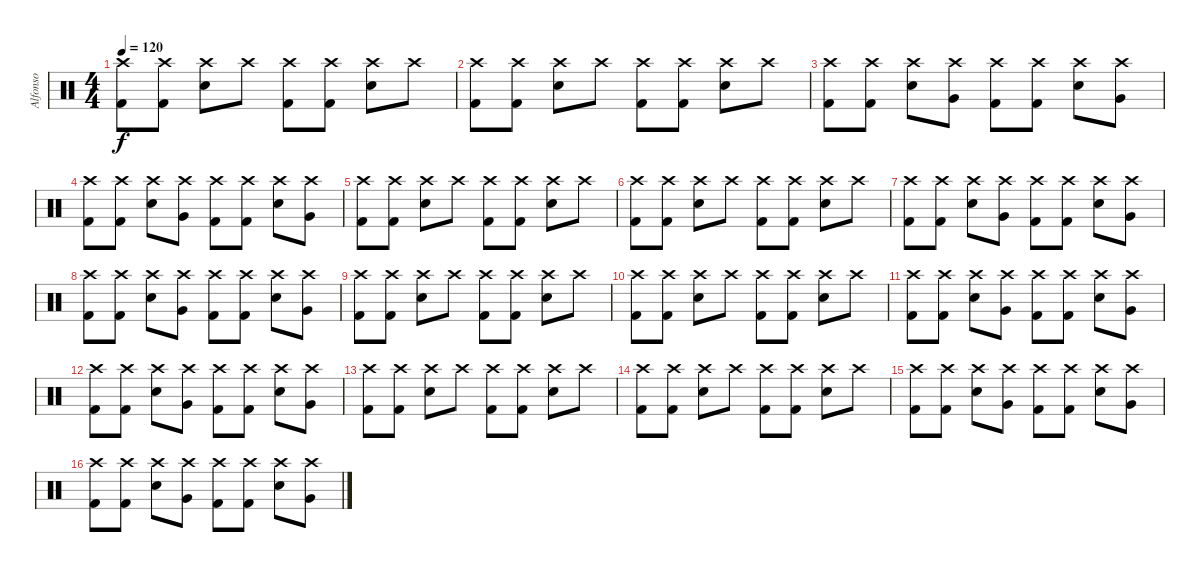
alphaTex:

\track ("Alfonso" "Alfonso") {instrument percussion}
\staff {score}
\articulation defaults
\ts (4 4)
\tempo 120
\clef neutral
\ks c
("Crash high (hit)" "Kick (hit) 2").8{dy f} ("Crash high (hit)" "Kick (hit) 2").8 ("Crash high (hit)" "Electric Snare (hit)").8 "Crash high (hit)".8 ("Crash high (hit)" "Kick (hit) 2").8 ("Crash high (hit)" "Kick (hit) 2").8 ("Crash high (hit)" "Electric Snare (hit)").8 "Crash high (hit)".8 |
("Crash high (hit)" "Kick (hit) 2").8 ("Crash high (hit)" "Kick (hit) 2").8 ("Crash high (hit)" "Electric Snare (hit)").8 "Crash high (hit)".8 ("Crash high (hit)" "Kick (hit) 2").8 ("Crash high (hit)" "Kick (hit) 2").8 ("Crash high (hit)" "Electric Snare (hit)").8 "Crash high (hit)".8 |
("Crash high (hit)" "Kick (hit) 2").8 ("Crash high (hit)" "Kick (hit) 2").8 ("Crash high (hit)" "Electric Snare (hit)").8 ("Crash high (hit)" "Very Low Tom (hit)").8 ("Crash high (hit)" "Kick (hit) 2").8 ("Crash high (hit)" "Kick (hit) 2").8 ("Crash high (hit)" "Electric Snare (hit)").8 ("Crash high (hit)" "Very Low Tom (hit)").8 |
("Crash high (hit)" "Kick (hit) 2").8 ("Crash high (hit)" "Kick (hit) 2").8 ("Crash high (hit)" "Electric Snare (hit)").8 ("Crash high (hit)" "Very Low Tom (hit)").8 ("Crash high (hit)" "Kick (hit) 2").8 ("Crash high (hit)" "Kick (hit) 2").8 ("Crash high (hit)" "Electric Snare (hit)").8 ("Crash high (hit)" "Very Low Tom (hit)").8 |
("Crash high (hit)" "Kick (hit) 2").8 ("Crash high (hit)" "Kick (hit) 2").8 ("Crash high (hit)" "Electric Snare (hit)").8 "Crash high (hit)".8 ("Crash high (hit)" "Kick (hit) 2").8 ("Crash high (hit)" "Kick (hit) 2").8 ("Crash high (hit)" "Electric Snare (hit)").8 "Crash high (hit)".8 |
("Crash high (hit)" "Kick (hit) 2").8 ("Crash high (hit)" "Kick (hit) 2").8 ("Crash high (hit)" "Electric Snare (hit)").8 "Crash high (hit)".8 ("Crash high (hit)" "Kick (hit) 2").8 ("Crash high (hit)" "Kick (hit) 2").8 ("Crash high (hit)" "Electric Snare (hit)").8 "Crash high (hit)".8 |
("Crash high (hit)" "Kick (hit) 2").8 ("Crash high (hit)" "Kick (hit) 2").8 ("Crash high (hit)" "Electric Snare (hit)").8 ("Crash high (hit)" "Very Low Tom (hit)").8 ("Crash high (hit)" "Kick (hit) 2").8 ("Crash high (hit)" "Kick (hit) 2").8 ("Crash high (hit)" "Electric Snare (hit)").8 ("Crash high (hit)" "Very Low Tom (hit)").8 |
("Crash high (hit)" "Kick (hit) 2").8 ("Crash high (hit)" "Kick (hit) 2").8 ("Crash high (hit)" "Electric Snare (hit)").8 ("Crash high (hit)" "Very Low Tom (hit)").8 ("Crash high (hit)" "Kick (hit) 2").8 ("Crash high (hit)" "Kick (hit) 2").8 ("Crash high (hit)" "Electric Snare (hit)").8 ("Crash high (hit)" "Very Low Tom (hit)").8 |
("Crash high (hit)" "Kick (hit) 2").8 ("Crash high (hit)" "Kick (hit) 2").8 ("Crash high (hit)" "Electric Snare (hit)").8 "Crash high (hit)".8 ("Crash high (hit)" "Kick (hit) 2").8 ("Crash high (hit)" "Kick (hit) 2").8 ("Crash high (hit)" "Electric Snare (hit)").8 "Crash high (hit)".8 |
("Crash high (hit)" "Kick (hit) 2").8 ("Crash high (hit)" "Kick (hit) 2").8 ("Crash high (hit)" "Electric Snare (hit)").8 "Crash high (hit)".8 ("Crash high (hit)" "Kick (hit) 2").8 ("Crash high (hit)" "Kick (hit) 2").8 ("Crash high (hit)" "Electric Snare (hit)").8 "Crash high (hit)".8 |
("Crash high (hit)" "Kick (hit) 2").8 ("Crash high (hit)" "Kick (hit) 2").8 ("Crash high (hit)" "Electric Snare (hit)").8 ("Crash high (hit)" "Very Low Tom (hit)").8 ("Crash high (hit)" "Kick (hit) 2").8 ("Crash high (hit)" "Kick (hit) 2").8 ("Crash high (hit)" "Electric Snare (hit)").8 ("Crash high (hit)" "Very Low Tom (hit)").8 |
("Crash high (hit)" "Kick (hit) 2").8 ("Crash high (hit)" "Kick (hit) 2").8 ("Crash high (hit)" "Electric Snare (hit)").8 ("Crash high (hit)" "Very Low Tom (hit)").8 ("Crash high (hit)" "Kick (hit) 2").8 ("Crash high (hit)" "Kick (hit) 2").8 ("Crash high (hit)" "Electric Snare (hit)").8 ("Crash high (hit)" "Very Low Tom (hit)").8 |
("Crash high (hit)" "Kick (hit) 2").8 ("Crash high (hit)" "Kick (hit) 2").8 ("Crash high (hit)" "Electric Snare (hit)").8 "Crash high (hit)".8 ("Crash high (hit)" "Kick (hit) 2").8 ("Crash high (hit)" "Kick (hit) 2").8 ("Crash high (hit)" "Electric Snare (hit)").8 "Crash high (hit)".8 |
("Crash high (hit)" "Kick (hit) 2").8 ("Crash high (hit)" "Kick (hit) 2").8 ("Crash high (hit)" "Electric Snare (hit)").8 "Crash high (hit)".8 ("Crash high (hit)" "Kick (hit) 2").8 ("Crash high (hit)" "Kick (hit) 2").8 ("Crash high (hit)" "Electric Snare (hit)").8 "Crash high (hit)".8 |
("Crash high (hit)" "Kick (hit) 2").8 ("Crash high (hit)" "Kick (hit) 2").8 ("Crash high (hit)" "Electric Snare (hit)").8 ("Crash high (hit)" "Very Low Tom (hit)").8 ("Crash high (hit)" "Kick (hit) 2").8 ("Crash high (hit)" "Kick (hit) 2").8 ("Crash high (hit)" "Electric Snare (hit)").8 ("Crash high (hit)" "Very Low Tom (hit)").8 |
("Crash high (hit)" "Kick (hit) 2").8 ("Crash high (hit)" "Kick (hit) 2").8 ("Crash high (hit)" "Electric Snare (hit)").8 ("Crash high (hit)" "Very Low Tom (hit)").8 ("Crash high (hit)" "Kick (hit) 2").8 ("Crash high (hit)" "Kick (hit) 2").8 ("Crash high (hit)" "Electric Snare (hit)").8 ("Crash high (hit)" "Very Low Tom (hit)").8
